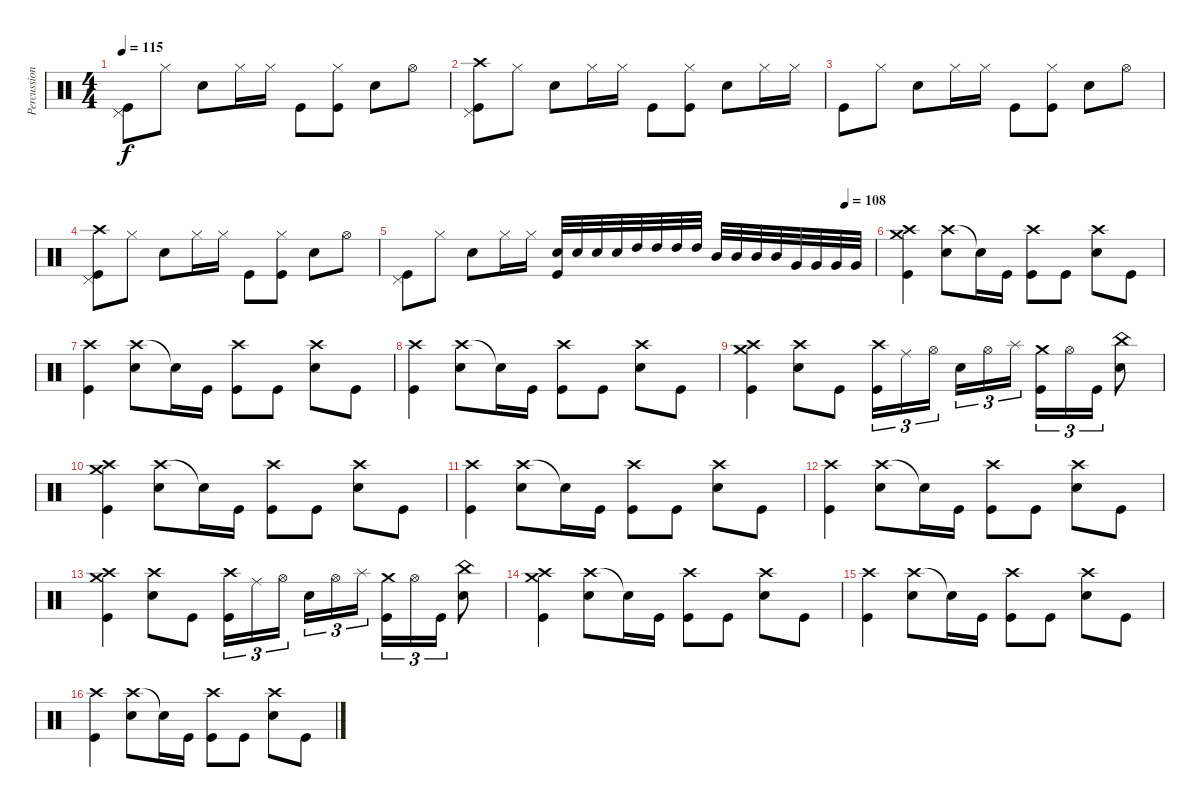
\track ("Percussion" "Percussion") {instrument percussion}
\staff {score}
\articulation defaults
\ts (4 4)
\tempo 115
\clef neutral
\ks c
("Pedal Hi-Hat (hit)" "Kick (hit)").8{dy f} "Hi-Hat (closed)".8 "Snare (hit) 2".8 "Hi-Hat (closed)".16 "Hi-Hat (closed)".16 "Kick (hit)".8 ("Hi-Hat (closed)" "Kick (hit)").8 "Snare (hit) 2".8 "Hi-Hat (open)".8 |
("Crash high (hit)" "Pedal Hi-Hat (hit)" "Kick (hit)").8 "Hi-Hat (closed)".8 "Snare (hit) 2".8 "Hi-Hat (closed)".16 "Hi-Hat (closed)".16 "Kick (hit)".8 ("Hi-Hat (closed)" "Kick (hit)").8 "Snare (hit) 2".8 "Hi-Hat (closed)".16 "Hi-Hat (closed)".16 |
"Kick (hit)".8 "Hi-Hat (closed)".8 "Snare (hit) 2".8 "Hi-Hat (closed)".16 "Hi-Hat (closed)".16 "Kick (hit)".8 ("Hi-Hat (closed)" "Kick (hit)").8 "Snare (hit) 2".8 "Hi-Hat (open)".8 |
("Crash high (hit)" "Pedal Hi-Hat (hit)" "Kick (hit)").8 "Hi-Hat (closed)".8 "Snare (hit) 2".8 "Hi-Hat (closed)".16 "Hi-Hat (closed)".16 "Kick (hit)".8 ("Hi-Hat (closed)" "Kick (hit)").8 "Snare (hit) 2".8 "Hi-Hat (open)".8 |
\tempo (108 0.9375)
("Pedal Hi-Hat (hit)" "Kick (hit)").8 "Hi-Hat (closed)".8 "Snare (hit) 2".8 "Hi-Hat (closed)".16 "Hi-Hat (closed)".16 ("Snare (hit) 2" "Kick (hit)").32 "Snare (hit) 2".32 "Snare (hit) 2".32 "Snare (hit) 2".32 "High Tom (hit)".32 "High Tom (hit)".32 "High Tom (hit)".32 "High Tom (hit)".32 "Mid Tom (hit)".32 "Mid Tom (hit)".32 "Mid Tom (hit)".32 "Mid Tom (hit)".32 "Very Low Tom (hit)".32 "Very Low Tom (hit)".32 "Very Low Tom (hit)".32 "Very Low Tom (hit)".32 |
("Crash medium (hit)" "Crash high (hit)" "Kick (hit)").4 ("Crash high (hit)" "Snare (hit) 2").8 "Snare (hit)"{t}.16 "Kick (hit)".16 ("Crash high (hit)" "Kick (hit)").8 "Kick (hit)".8 ("Crash high (hit)" "Snare (hit) 2").8 "Kick (hit)".8 |
("Crash high (hit)" "Kick (hit)").4 ("Crash high (hit)" "Snare (hit) 2").8 "Snare (hit)"{t}.16 "Kick (hit)".16 ("Crash high (hit)" "Kick (hit)").8 "Kick (hit)".8 ("Crash high (hit)" "Snare (hit) 2").8 "Kick (hit)".8 |
("Crash high (hit)" "Kick (hit)").4 ("Crash high (hit)" "Snare (hit) 2").8 "Snare (hit)"{t}.16 "Kick (hit)".16 ("Crash high (hit)" "Kick (hit)").8 "Kick (hit)".8 ("Crash high (hit)" "Snare (hit) 2").8 "Kick (hit)".8 |
("Crash high (hit)" "Crash medium (hit)" "Kick (hit)").4 ("Crash high (hit)" "Snare (hit) 2").8 "Kick (hit)".8 ("Crash high (hit)" "Kick (hit)").16{tu (3 2)} "Ride (middle)".16{tu (3 2)} "Hi-Hat (open)".16{tu (3 2) beam splitsecondary} "Snare (hit) 2".16{tu (3 2)} "Hi-Hat (open)".16{tu (3 2)} "Splash (hit)".16{tu (3 2)} ("Crash medium (hit)" "Kick (hit)").16{tu (3 2)} "Hi-Hat (open)".16{tu (3 2)} "Kick (hit)".16{tu (3 2)} ("China (hit)" "Snare (hit) 2").8 |
("Crash medium (hit)" "Crash high (hit)" "Kick (hit)").4 ("Crash high (hit)" "Snare (hit) 2").8 "Snare (hit)"{t}.16 "Kick (hit)".16 ("Crash high (hit)" "Kick (hit)").8 "Kick (hit)".8 ("Crash high (hit)" "Snare (hit) 2").8 "Kick (hit)".8 |
("Crash high (hit)" "Kick (hit)").4 ("Crash high (hit)" "Snare (hit) 2").8 "Snare (hit)"{t}.16 "Kick (hit)".16 ("Crash high (hit)" "Kick (hit)").8 "Kick (hit)".8 ("Crash high (hit)" "Snare (hit) 2").8 "Kick (hit)".8 |
("Crash high (hit)" "Kick (hit)").4 ("Crash high (hit)" "Snare (hit) 2").8 "Snare (hit)"{t}.16 "Kick (hit)".16 ("Crash high (hit)" "Kick (hit)").8 "Kick (hit)".8 ("Crash high (hit)" "Snare (hit) 2").8 "Kick (hit)".8 |
("Crash high (hit)" "Crash medium (hit)" "Kick (hit)").4 ("Crash high (hit)" "Snare (hit) 2").8 "Kick (hit)".8 ("Crash high (hit)" "Kick (hit)").16{tu (3 2)} "Ride (middle)".16{tu (3 2)} "Hi-Hat (open)".16{tu (3 2) beam splitsecondary} "Snare (hit) 2".16{tu (3 2)} "Hi-Hat (open)".16{tu (3 2)} "Splash (hit)".16{tu (3 2)} ("Crash medium (hit)" "Kick (hit)").16{tu (3 2)} "Hi-Hat (open)".16{tu (3 2)} "Kick (hit)".16{tu (3 2)} ("China (hit)" "Snare (hit) 2").8 |
("Crash medium (hit)" "Crash high (hit)" "Kick (hit)").4 ("Crash high (hit)" "Snare (hit) 2").8 "Snare (hit)"{t}.16 "Kick (hit)".16 ("Crash high (hit)" "Kick (hit)").8 "Kick (hit)".8 ("Crash high (hit)" "Snare (hit) 2").8 "Kick (hit)".8 |
("Crash high (hit)" "Kick (hit)").4 ("Crash high (hit)" "Snare (hit) 2").8 "Snare (hit)"{t}.16 "Kick (hit)".16 ("Crash high (hit)" "Kick (hit)").8 "Kick (hit)".8 ("Crash high (hit)" "Snare (hit) 2").8 "Kick (hit)".8 |
("Crash high (hit)" "Kick (hit)").4 ("Crash high (hit)" "Snare (hit) 2").8 "Snare (hit)"{t}.16 "Kick (hit)".16 ("Crash high (hit)" "Kick (hit)").8 "Kick (hit)".8 ("Crash high (hit)" "Snare (hit) 2").8 "Kick (hit)".8
